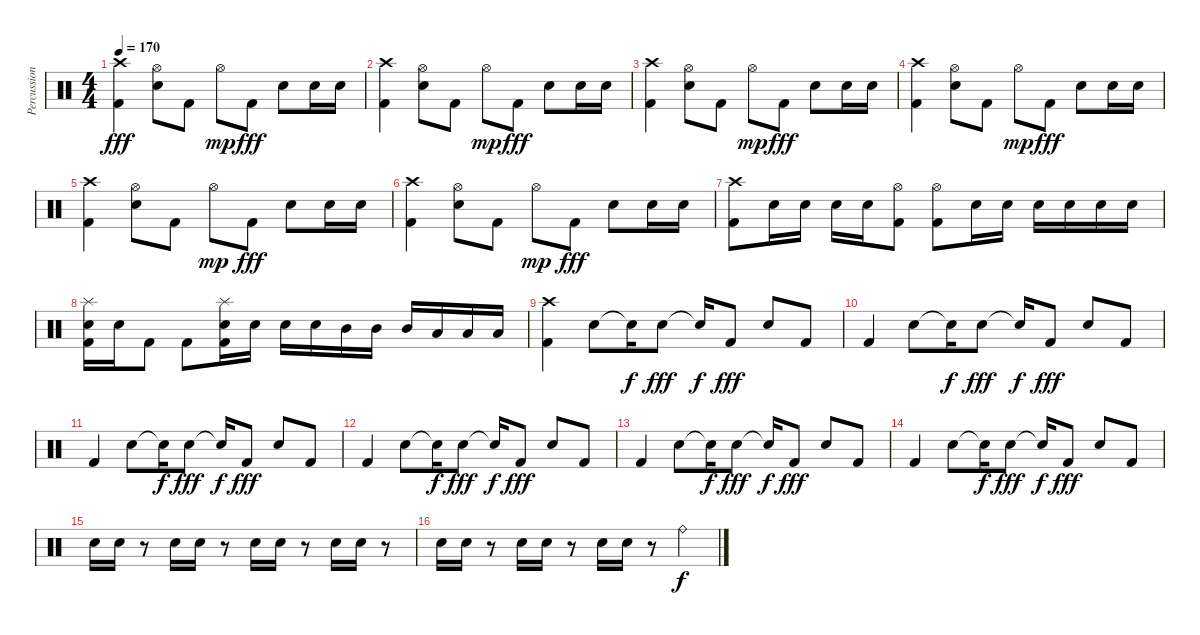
\track ("Percussion" "Percussion") {instrument percussion}
\staff {score}
\articulation defaults
\ts (4 4)
\tempo 170
\clef neutral
\ks c
("Crash high (hit)" "Kick (hit) 2").4{dy fff} ("Hi-Hat (open)" "Electric Snare (hit)").8 "Kick (hit) 2".8 "Hi-Hat (open)".8{dy mp} "Kick (hit) 2".8{dy fff} "Electric Snare (hit)".8 "Electric Snare (hit)".16 "Electric Snare (hit)".16 |
("Crash high (hit)" "Kick (hit) 2").4 ("Hi-Hat (open)" "Electric Snare (hit)").8 "Kick (hit) 2".8 "Hi-Hat (open)".8{dy mp} "Kick (hit) 2".8{dy fff} "Electric Snare (hit)".8 "Electric Snare (hit)".16 "Electric Snare (hit)".16 |
("Crash high (hit)" "Kick (hit) 2").4 ("Hi-Hat (open)" "Electric Snare (hit)").8 "Kick (hit) 2".8 "Hi-Hat (open)".8{dy mp} "Kick (hit) 2".8{dy fff} "Electric Snare (hit)".8 "Electric Snare (hit)".16 "Electric Snare (hit)".16 |
("Crash high (hit)" "Kick (hit) 2").4 ("Hi-Hat (open)" "Electric Snare (hit)").8 "Kick (hit) 2".8 "Hi-Hat (open)".8{dy mp} "Kick (hit) 2".8{dy fff} "Electric Snare (hit)".8 "Electric Snare (hit)".16 "Electric Snare (hit)".16 |
("Crash high (hit)" "Kick (hit) 2").4 ("Hi-Hat (open)" "Electric Snare (hit)").8 "Kick (hit) 2".8 "Hi-Hat (open)".8{dy mp} "Kick (hit) 2".8{dy fff} "Electric Snare (hit)".8 "Electric Snare (hit)".16 "Electric Snare (hit)".16 |
("Crash high (hit)" "Kick (hit) 2").4 ("Hi-Hat (open)" "Electric Snare (hit)").8 "Kick (hit) 2".8 "Hi-Hat (open)".8{dy mp} "Kick (hit) 2".8{dy fff} "Electric Snare (hit)".8 "Electric Snare (hit)".16 "Electric Snare (hit)".16 |
("Crash high (hit)" "Kick (hit) 2").8 "Electric Snare (hit)".16 "Electric Snare (hit)".16 "Electric Snare (hit)".16 "Electric Snare (hit)".16 ("Hi-Hat (open)" "Kick (hit) 2").8 ("Hi-Hat (open)" "Kick (hit) 2").8 "Electric Snare (hit)".16 "Electric Snare (hit)".16 "Electric Snare (hit)".16 "Electric Snare (hit)".16 "Electric Snare (hit)".16 "Electric Snare (hit)".16 |
("Splash (hit)" "Electric Snare (hit)" "Kick (hit) 2").16 "Electric Snare (hit)".16 "Kick (hit) 2".8 "Kick (hit) 2".8 ("Splash (hit)" "Electric Snare (hit)" "Kick (hit) 2").16 "Electric Snare (hit)".16 "Electric Snare (hit)".16 "Electric Snare (hit)".16 "Mid Tom (hit)".16 "Mid Tom (hit)".16 "Mid Tom (hit)".16 "Low Tom (hit)".16 "Low Tom (hit)".16 "Low Tom (hit)".16 |
("Crash high (hit)" "Kick (hit) 2").4 "Electric Snare (hit)".8 "Electric Snare (hit)"{t}.16{dy f} "Electric Snare (hit)".8{dy fff} "Electric Snare (hit)"{t}.16{dy f} "Kick (hit) 2".8{dy fff} "Electric Snare (hit)".8 "Kick (hit) 2".8 |
"Kick (hit) 2".4 "Electric Snare (hit)".8 "Electric Snare (hit)"{t}.16{dy f} "Electric Snare (hit)".8{dy fff} "Electric Snare (hit)"{t}.16{dy f} "Kick (hit) 2".8{dy fff} "Electric Snare (hit)".8 "Kick (hit) 2".8 |
"Kick (hit) 2".4 "Electric Snare (hit)".8 "Electric Snare (hit)"{t}.16{dy f} "Electric Snare (hit)".8{dy fff} "Electric Snare (hit)"{t}.16{dy f} "Kick (hit) 2".8{dy fff} "Electric Snare (hit)".8 "Kick (hit) 2".8 |
"Kick (hit) 2".4 "Electric Snare (hit)".8 "Electric Snare (hit)"{t}.16{dy f} "Electric Snare (hit)".8{dy fff} "Electric Snare (hit)"{t}.16{dy f} "Kick (hit) 2".8{dy fff} "Electric Snare (hit)".8 "Kick (hit) 2".8 |
"Kick (hit) 2".4 "Electric Snare (hit)".8 "Electric Snare (hit)"{t}.16{dy f} "Electric Snare (hit)".8{dy fff} "Electric Snare (hit)"{t}.16{dy f} "Kick (hit) 2".8{dy fff} "Electric Snare (hit)".8 "Kick (hit) 2".8 |
"Kick (hit) 2".4 "Electric Snare (hit)".8 "Electric Snare (hit)"{t}.16{dy f} "Electric Snare (hit)".8{dy fff} "Electric Snare (hit)"{t}.16{dy f} "Kick (hit) 2".8{dy fff} "Electric Snare (hit)".8 "Kick (hit) 2".8 |
"Electric Snare (hit)".16 "Electric Snare (hit)".16 r.8 "Electric Snare (hit)".16 "Electric Snare (hit)".16 r.8 "Electric Snare (hit)".16 "Electric Snare (hit)".16 r.8 "Electric Snare (hit)".16 "Electric Snare (hit)".16 r.8 |
"Electric Snare (hit)".16 "Electric Snare (hit)".16 r.8 "Electric Snare (hit)".16 "Electric Snare (hit)".16 r.8 "Electric Snare (hit)".16 "Electric Snare (hit)".16 r.8 "Ride (bell)".4{dy f}
